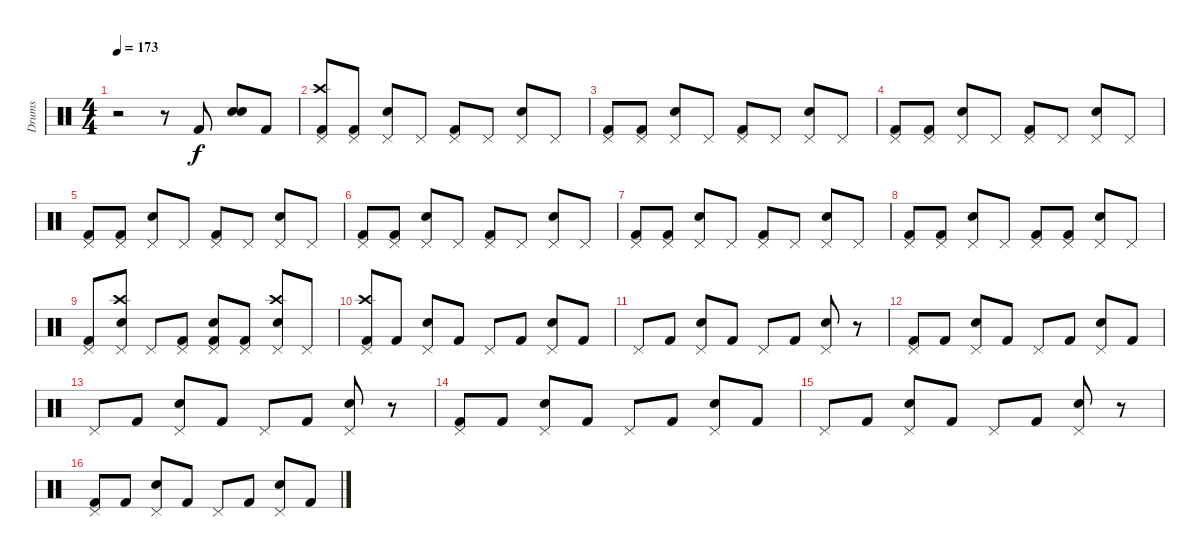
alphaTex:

\track ("Drums" "Drums") {instrument percussion}
\staff {score}
\articulation defaults
\ts (4 4)
\tempo 173
\clef neutral
\ks c
r.2{dy f} r.8 "Kick (hit) 2".8 ("Electric Snare (hit)" "Snare (hit) 2").8 "Kick (hit) 2".8 |
("Crash high (hit)" "Pedal Hi-Hat (hit)" "Kick (hit) 2").8 ("Pedal Hi-Hat (hit)" "Kick (hit) 2").8 ("Pedal Hi-Hat (hit)" "Snare (hit) 2").8 "Pedal Hi-Hat (hit)".8 ("Pedal Hi-Hat (hit)" "Kick (hit) 2").8 "Pedal Hi-Hat (hit)".8 ("Pedal Hi-Hat (hit)" "Snare (hit) 2").8 "Pedal Hi-Hat (hit)".8 |
("Pedal Hi-Hat (hit)" "Kick (hit) 2").8 ("Pedal Hi-Hat (hit)" "Kick (hit) 2").8 ("Pedal Hi-Hat (hit)" "Snare (hit) 2").8 "Pedal Hi-Hat (hit)".8 ("Pedal Hi-Hat (hit)" "Kick (hit) 2").8 "Pedal Hi-Hat (hit)".8 ("Pedal Hi-Hat (hit)" "Snare (hit) 2").8 "Pedal Hi-Hat (hit)".8 |
("Pedal Hi-Hat (hit)" "Kick (hit) 2").8 ("Pedal Hi-Hat (hit)" "Kick (hit) 2").8 ("Pedal Hi-Hat (hit)" "Snare (hit) 2").8 "Pedal Hi-Hat (hit)".8 ("Pedal Hi-Hat (hit)" "Kick (hit) 2").8 "Pedal Hi-Hat (hit)".8 ("Pedal Hi-Hat (hit)" "Snare (hit) 2").8 "Pedal Hi-Hat (hit)".8 |
("Pedal Hi-Hat (hit)" "Kick (hit) 2").8 ("Pedal Hi-Hat (hit)" "Kick (hit) 2").8 ("Pedal Hi-Hat (hit)" "Snare (hit) 2").8 "Pedal Hi-Hat (hit)".8 ("Pedal Hi-Hat (hit)" "Kick (hit) 2").8 "Pedal Hi-Hat (hit)".8 ("Pedal Hi-Hat (hit)" "Snare (hit) 2").8 "Pedal Hi-Hat (hit)".8 |
("Pedal Hi-Hat (hit)" "Kick (hit) 2").8 ("Pedal Hi-Hat (hit)" "Kick (hit) 2").8 ("Pedal Hi-Hat (hit)" "Snare (hit) 2").8 "Pedal Hi-Hat (hit)".8 ("Pedal Hi-Hat (hit)" "Kick (hit) 2").8 "Pedal Hi-Hat (hit)".8 ("Pedal Hi-Hat (hit)" "Snare (hit) 2").8 "Pedal Hi-Hat (hit)".8 |
("Pedal Hi-Hat (hit)" "Kick (hit) 2").8 ("Pedal Hi-Hat (hit)" "Kick (hit) 2").8 ("Pedal Hi-Hat (hit)" "Snare (hit) 2").8 "Pedal Hi-Hat (hit)".8 ("Pedal Hi-Hat (hit)" "Kick (hit) 2").8 "Pedal Hi-Hat (hit)".8 ("Pedal Hi-Hat (hit)" "Snare (hit) 2").8 "Pedal Hi-Hat (hit)".8 |
("Pedal Hi-Hat (hit)" "Kick (hit) 2").8 ("Pedal Hi-Hat (hit)" "Kick (hit) 2").8 ("Pedal Hi-Hat (hit)" "Snare (hit) 2").8 "Pedal Hi-Hat (hit)".8 ("Pedal Hi-Hat (hit)" "Kick (hit) 2").8 ("Pedal Hi-Hat (hit)" "Kick (hit) 2").8 ("Pedal Hi-Hat (hit)" "Snare (hit) 2").8 "Pedal Hi-Hat (hit)".8 |
("Pedal Hi-Hat (hit)" "Kick (hit) 2").8 ("Crash high (hit)" "Pedal Hi-Hat (hit)" "Snare (hit) 2").8 "Pedal Hi-Hat (hit)".8 ("Pedal Hi-Hat (hit)" "Kick (hit) 2").8 ("Kick (hit) 2" "Pedal Hi-Hat (hit)" "Snare (hit) 2").8 ("Kick (hit) 2" "Pedal Hi-Hat (hit)").8 ("Crash high (hit)" "Snare (hit) 2" "Pedal Hi-Hat (hit)").8 "Pedal Hi-Hat (hit)".8 |
("Crash high (hit)" "Pedal Hi-Hat (hit)" "Kick (hit) 2").8 "Kick (hit) 2".8 ("Pedal Hi-Hat (hit)" "Snare (hit) 2").8 "Kick (hit) 2".8 "Pedal Hi-Hat (hit)".8 "Kick (hit) 2".8 ("Pedal Hi-Hat (hit)" "Snare (hit) 2").8 "Kick (hit) 2".8 |
"Pedal Hi-Hat (hit)".8 "Kick (hit) 2".8 ("Pedal Hi-Hat (hit)" "Snare (hit) 2").8 "Kick (hit) 2".8 "Pedal Hi-Hat (hit)".8 "Kick (hit) 2".8 ("Pedal Hi-Hat (hit)" "Snare (hit) 2").8 r.8 |
("Pedal Hi-Hat (hit)" "Kick (hit) 2").8 "Kick (hit) 2".8 ("Pedal Hi-Hat (hit)" "Snare (hit) 2").8 "Kick (hit) 2".8 "Pedal Hi-Hat (hit)".8 "Kick (hit) 2".8 ("Pedal Hi-Hat (hit)" "Snare (hit) 2").8 "Kick (hit) 2".8 |
"Pedal Hi-Hat (hit)".8 "Kick (hit) 2".8 ("Pedal Hi-Hat (hit)" "Snare (hit) 2").8 "Kick (hit) 2".8 "Pedal Hi-Hat (hit)".8 "Kick (hit) 2".8 ("Pedal Hi-Hat (hit)" "Snare (hit) 2").8 r.8 |
("Pedal Hi-Hat (hit)" "Kick (hit) 2").8 "Kick (hit) 2".8 ("Pedal Hi-Hat (hit)" "Snare (hit) 2").8 "Kick (hit) 2".8 "Pedal Hi-Hat (hit)".8 "Kick (hit) 2".8 ("Pedal Hi-Hat (hit)" "Snare (hit) 2").8 "Kick (hit) 2".8 |
"Pedal Hi-Hat (hit)".8 "Kick (hit) 2".8 ("Pedal Hi-Hat (hit)" "Snare (hit) 2").8 "Kick (hit) 2".8 "Pedal Hi-Hat (hit)".8 "Kick (hit) 2".8 ("Pedal Hi-Hat (hit)" "Snare (hit) 2").8 r.8 |
("Pedal Hi-Hat (hit)" "Kick (hit) 2").8 "Kick (hit) 2".8 ("Pedal Hi-Hat (hit)" "Snare (hit) 2").8 "Kick (hit) 2".8 "Pedal Hi-Hat (hit)".8 "Kick (hit) 2".8 ("Pedal Hi-Hat (hit)" "Snare (hit) 2").8 "Kick (hit) 2".8
